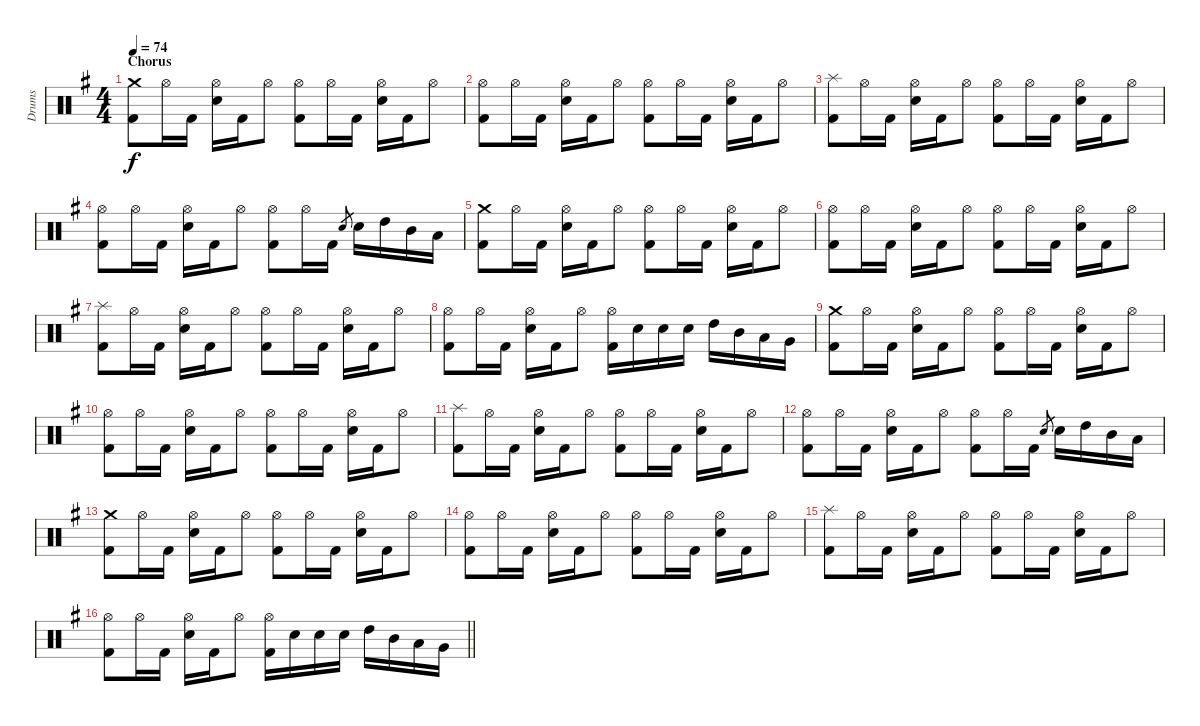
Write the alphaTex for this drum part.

\track ("Drums" "Drums") {instrument percussion}
\staff {score}
\articulation defaults
\ts (4 4)
\section ("" "Chorus")
\tempo 74
\clef neutral
\ks eminor
("Crash medium (hit)" "Kick (hit) 2").8{dy f} "Hi-Hat (open)".16 "Kick (hit) 2".16 ("Hi-Hat (open)" "Electric Snare (hit)").16 "Kick (hit) 2".16 "Hi-Hat (open)".8 ("Hi-Hat (open)" "Kick (hit) 2").8 "Hi-Hat (open)".16 "Kick (hit) 2".16 ("Hi-Hat (open)" "Electric Snare (hit)").16 "Kick (hit) 2".16 "Hi-Hat (open)".8 |
("Hi-Hat (open)" "Kick (hit) 2").8 "Hi-Hat (open)".16 "Kick (hit) 2".16 ("Hi-Hat (open)" "Electric Snare (hit)").16 "Kick (hit) 2".16 "Hi-Hat (open)".8 ("Hi-Hat (open)" "Kick (hit) 2").8 "Hi-Hat (open)".16 "Kick (hit) 2".16 ("Hi-Hat (open)" "Electric Snare (hit)").16 "Kick (hit) 2".16 "Hi-Hat (open)".8 |
("Splash (hit)" "Kick (hit) 2").8 "Hi-Hat (open)".16 "Kick (hit) 2".16 ("Hi-Hat (open)" "Electric Snare (hit)").16 "Kick (hit) 2".16 "Hi-Hat (open)".8 ("Hi-Hat (open)" "Kick (hit) 2").8 "Hi-Hat (open)".16 "Kick (hit) 2".16 ("Hi-Hat (open)" "Electric Snare (hit)").16 "Kick (hit) 2".16 "Hi-Hat (open)".8 |
("Hi-Hat (open)" "Kick (hit) 2").8 "Hi-Hat (open)".16 "Kick (hit) 2".16 ("Hi-Hat (open)" "Electric Snare (hit)").16 "Kick (hit) 2".16 "Hi-Hat (open)".8 ("Hi-Hat (open)" "Kick (hit) 2").8 "Hi-Hat (open)".16 "Kick (hit) 2".16 "Electric Snare (hit)".8{gr} "Electric Snare (hit)".16 "High Tom (hit)".16 "Mid Tom (hit)".16 "Low Tom (hit)".16 |
("Crash medium (hit)" "Kick (hit) 2").8 "Hi-Hat (open)".16 "Kick (hit) 2".16 ("Hi-Hat (open)" "Electric Snare (hit)").16 "Kick (hit) 2".16 "Hi-Hat (open)".8 ("Hi-Hat (open)" "Kick (hit) 2").8 "Hi-Hat (open)".16 "Kick (hit) 2".16 ("Hi-Hat (open)" "Electric Snare (hit)").16 "Kick (hit) 2".16 "Hi-Hat (open)".8 |
("Hi-Hat (open)" "Kick (hit) 2").8 "Hi-Hat (open)".16 "Kick (hit) 2".16 ("Hi-Hat (open)" "Electric Snare (hit)").16 "Kick (hit) 2".16 "Hi-Hat (open)".8 ("Hi-Hat (open)" "Kick (hit) 2").8 "Hi-Hat (open)".16 "Kick (hit) 2".16 ("Hi-Hat (open)" "Electric Snare (hit)").16 "Kick (hit) 2".16 "Hi-Hat (open)".8 |
("Splash (hit)" "Kick (hit) 2").8 "Hi-Hat (open)".16 "Kick (hit) 2".16 ("Hi-Hat (open)" "Electric Snare (hit)").16 "Kick (hit) 2".16 "Hi-Hat (open)".8 ("Hi-Hat (open)" "Kick (hit) 2").8 "Hi-Hat (open)".16 "Kick (hit) 2".16 ("Hi-Hat (open)" "Electric Snare (hit)").16 "Kick (hit) 2".16 "Hi-Hat (open)".8 |
("Hi-Hat (open)" "Kick (hit) 2").8 "Hi-Hat (open)".16 "Kick (hit) 2".16 ("Hi-Hat (open)" "Electric Snare (hit)").16 "Kick (hit) 2".16 "Hi-Hat (open)".8 ("Hi-Hat (open)" "Kick (hit) 2").16 "Electric Snare (hit)".16 "Electric Snare (hit)".16 "Electric Snare (hit)".16 "High Tom (hit)".16 "Mid Tom (hit)".16 "Low Tom (hit)".16 "Very Low Tom (hit)".16 |
("Crash medium (hit)" "Kick (hit) 2").8 "Hi-Hat (open)".16 "Kick (hit) 2".16 ("Hi-Hat (open)" "Electric Snare (hit)").16 "Kick (hit) 2".16 "Hi-Hat (open)".8 ("Hi-Hat (open)" "Kick (hit) 2").8 "Hi-Hat (open)".16 "Kick (hit) 2".16 ("Hi-Hat (open)" "Electric Snare (hit)").16 "Kick (hit) 2".16 "Hi-Hat (open)".8 |
("Hi-Hat (open)" "Kick (hit) 2").8 "Hi-Hat (open)".16 "Kick (hit) 2".16 ("Hi-Hat (open)" "Electric Snare (hit)").16 "Kick (hit) 2".16 "Hi-Hat (open)".8 ("Hi-Hat (open)" "Kick (hit) 2").8 "Hi-Hat (open)".16 "Kick (hit) 2".16 ("Hi-Hat (open)" "Electric Snare (hit)").16 "Kick (hit) 2".16 "Hi-Hat (open)".8 |
("Splash (hit)" "Kick (hit) 2").8 "Hi-Hat (open)".16 "Kick (hit) 2".16 ("Hi-Hat (open)" "Electric Snare (hit)").16 "Kick (hit) 2".16 "Hi-Hat (open)".8 ("Hi-Hat (open)" "Kick (hit) 2").8 "Hi-Hat (open)".16 "Kick (hit) 2".16 ("Hi-Hat (open)" "Electric Snare (hit)").16 "Kick (hit) 2".16 "Hi-Hat (open)".8 |
("Hi-Hat (open)" "Kick (hit) 2").8 "Hi-Hat (open)".16 "Kick (hit) 2".16 ("Hi-Hat (open)" "Electric Snare (hit)").16 "Kick (hit) 2".16 "Hi-Hat (open)".8 ("Hi-Hat (open)" "Kick (hit) 2").8 "Hi-Hat (open)".16 "Kick (hit) 2".16 "Electric Snare (hit)".8{gr} "Electric Snare (hit)".16 "High Tom (hit)".16 "Mid Tom (hit)".16 "Low Tom (hit)".16 |
("Crash medium (hit)" "Kick (hit) 2").8 "Hi-Hat (open)".16 "Kick (hit) 2".16 ("Hi-Hat (open)" "Electric Snare (hit)").16 "Kick (hit) 2".16 "Hi-Hat (open)".8 ("Hi-Hat (open)" "Kick (hit) 2").8 "Hi-Hat (open)".16 "Kick (hit) 2".16 ("Hi-Hat (open)" "Electric Snare (hit)").16 "Kick (hit) 2".16 "Hi-Hat (open)".8 |
("Hi-Hat (open)" "Kick (hit) 2").8 "Hi-Hat (open)".16 "Kick (hit) 2".16 ("Hi-Hat (open)" "Electric Snare (hit)").16 "Kick (hit) 2".16 "Hi-Hat (open)".8 ("Hi-Hat (open)" "Kick (hit) 2").8 "Hi-Hat (open)".16 "Kick (hit) 2".16 ("Hi-Hat (open)" "Electric Snare (hit)").16 "Kick (hit) 2".16 "Hi-Hat (open)".8 |
("Splash (hit)" "Kick (hit) 2").8 "Hi-Hat (open)".16 "Kick (hit) 2".16 ("Hi-Hat (open)" "Electric Snare (hit)").16 "Kick (hit) 2".16 "Hi-Hat (open)".8 ("Hi-Hat (open)" "Kick (hit) 2").8 "Hi-Hat (open)".16 "Kick (hit) 2".16 ("Hi-Hat (open)" "Electric Snare (hit)").16 "Kick (hit) 2".16 "Hi-Hat (open)".8 |
\barLineRight lightlight
("Hi-Hat (open)" "Kick (hit) 2").8 "Hi-Hat (open)".16 "Kick (hit) 2".16 ("Hi-Hat (open)" "Electric Snare (hit)").16 "Kick (hit) 2".16 "Hi-Hat (open)".8 ("Hi-Hat (open)" "Kick (hit) 2").16 "Electric Snare (hit)".16 "Electric Snare (hit)".16 "Electric Snare (hit)".16 "High Tom (hit)".16 "Mid Tom (hit)".16 "Low Tom (hit)".16 "Very Low Tom (hit)".16
